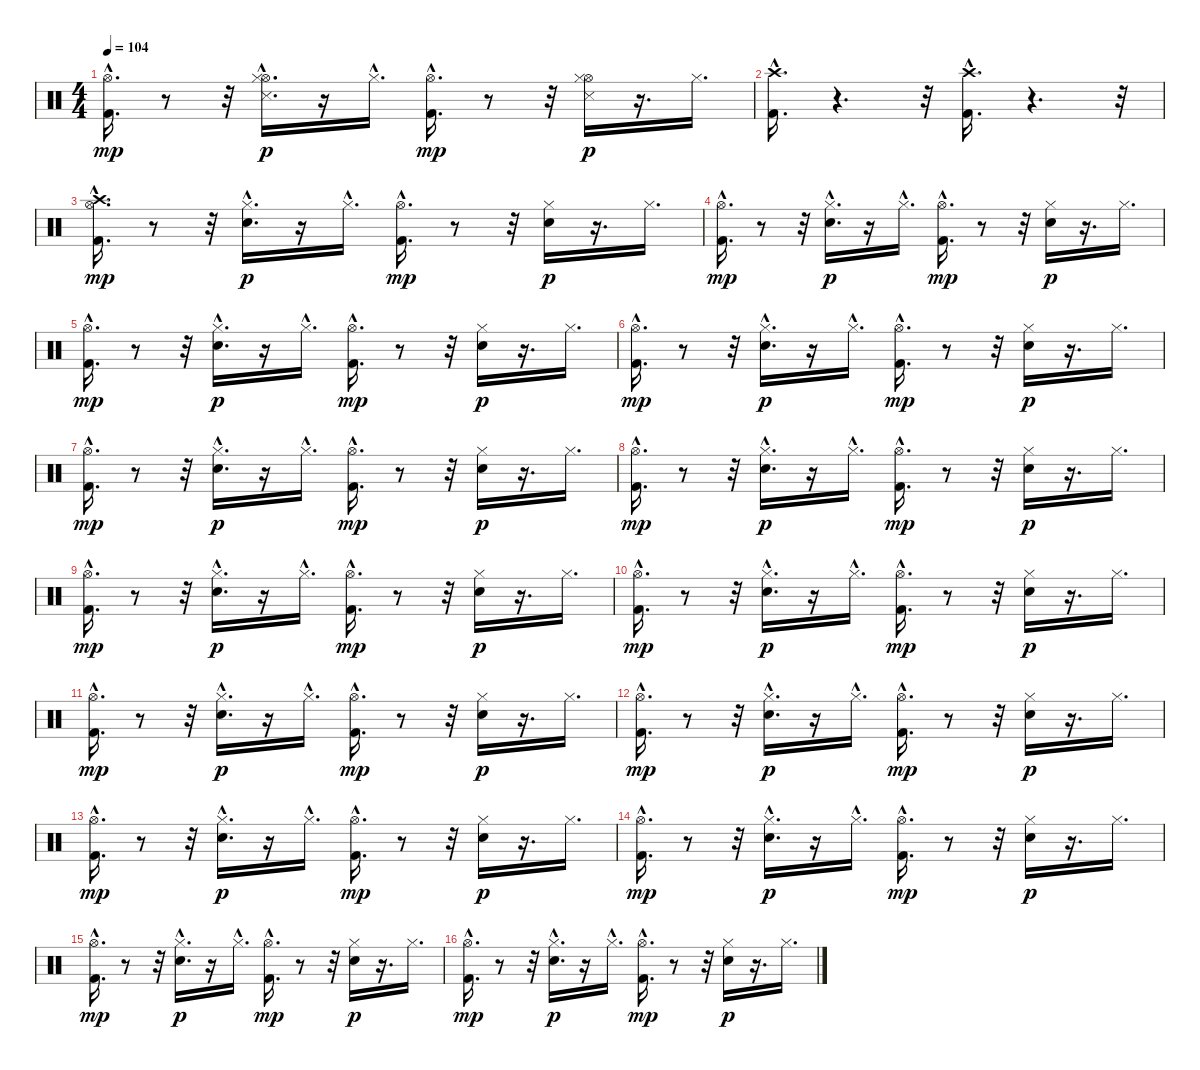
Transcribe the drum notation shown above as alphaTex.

\track "" {instrument percussion}
\staff {score}
\articulation defaults
\ts (4 4)
\tempo 104
\clef neutral
\ks c
("Hi-Hat (open)"{hac} "Kick (hit) 2"{hac}).16{d dy mp} r.8 r.32 ("Snare (side stick) 3"{hac} "Hi-Hat (open)"{hac} "Hi-Hat (closed)"{hac}).16{d dy p} r.16 "Hi-Hat (closed)"{hac}.16{d} ("Hi-Hat (open)"{hac} "Kick (hit) 2"{hac}).16{d dy mp} r.8 r.32 ("Snare (side stick) 3" "Hi-Hat (open)" "Hi-Hat (closed)").16{dy p} r.16{d} "Hi-Hat (closed)".16{d} |
("Kick (hit) 2"{hac} "Crash high (hit)"{hac}).16{d} r.4{d} r.32 ("Kick (hit) 2"{hac} "Crash high (hit)"{hac}).16{d} r.4{d} r.32 |
("Crash high (hit)"{hac} "Hi-Hat (open)"{hac} "Kick (hit) 2"{hac}).16{d dy mp} r.8 r.32 ("Hi-Hat (closed)"{hac} "Snare (hit) 2"{hac}).16{d dy p} r.16 "Hi-Hat (closed)"{hac}.16{d} ("Hi-Hat (open)"{hac} "Kick (hit) 2"{hac}).16{d dy mp} r.8 r.32 ("Hi-Hat (closed)" "Snare (hit) 2").16{dy p} r.16{d} "Hi-Hat (closed)".16{d} |
("Hi-Hat (open)"{hac} "Kick (hit) 2"{hac}).16{d dy mp} r.8 r.32 ("Hi-Hat (closed)"{hac} "Snare (hit) 2"{hac}).16{d dy p} r.16 "Hi-Hat (closed)"{hac}.16{d} ("Hi-Hat (open)"{hac} "Kick (hit) 2"{hac}).16{d dy mp} r.8 r.32 ("Hi-Hat (closed)" "Snare (hit) 2").16{dy p} r.16{d} "Hi-Hat (closed)".16{d} |
("Hi-Hat (open)"{hac} "Kick (hit) 2"{hac}).16{d dy mp} r.8 r.32 ("Hi-Hat (closed)"{hac} "Snare (hit) 2"{hac}).16{d dy p} r.16 "Hi-Hat (closed)"{hac}.16{d} ("Hi-Hat (open)"{hac} "Kick (hit) 2"{hac}).16{d dy mp} r.8 r.32 ("Hi-Hat (closed)" "Snare (hit) 2").16{dy p} r.16{d} "Hi-Hat (closed)".16{d} |
("Hi-Hat (open)"{hac} "Kick (hit) 2"{hac}).16{d dy mp} r.8 r.32 ("Hi-Hat (closed)"{hac} "Snare (hit) 2"{hac}).16{d dy p} r.16 "Hi-Hat (closed)"{hac}.16{d} ("Hi-Hat (open)"{hac} "Kick (hit) 2"{hac}).16{d dy mp} r.8 r.32 ("Hi-Hat (closed)" "Snare (hit) 2").16{dy p} r.16{d} "Hi-Hat (closed)".16{d} |
("Hi-Hat (open)"{hac} "Kick (hit) 2"{hac}).16{d dy mp} r.8 r.32 ("Hi-Hat (closed)"{hac} "Snare (hit) 2"{hac}).16{d dy p} r.16 "Hi-Hat (closed)"{hac}.16{d} ("Hi-Hat (open)"{hac} "Kick (hit) 2"{hac}).16{d dy mp} r.8 r.32 ("Hi-Hat (closed)" "Snare (hit) 2").16{dy p} r.16{d} "Hi-Hat (closed)".16{d} |
("Hi-Hat (open)"{hac} "Kick (hit) 2"{hac}).16{d dy mp} r.8 r.32 ("Hi-Hat (closed)"{hac} "Snare (hit) 2"{hac}).16{d dy p} r.16 "Hi-Hat (closed)"{hac}.16{d} ("Hi-Hat (open)"{hac} "Kick (hit) 2"{hac}).16{d dy mp} r.8 r.32 ("Hi-Hat (closed)" "Snare (hit) 2").16{dy p} r.16{d} "Hi-Hat (closed)".16{d} |
("Hi-Hat (open)"{hac} "Kick (hit) 2"{hac}).16{d dy mp} r.8 r.32 ("Hi-Hat (closed)"{hac} "Snare (hit) 2"{hac}).16{d dy p} r.16 "Hi-Hat (closed)"{hac}.16{d} ("Hi-Hat (open)"{hac} "Kick (hit) 2"{hac}).16{d dy mp} r.8 r.32 ("Hi-Hat (closed)" "Snare (hit) 2").16{dy p} r.16{d} "Hi-Hat (closed)".16{d} |
("Hi-Hat (open)"{hac} "Kick (hit) 2"{hac}).16{d dy mp} r.8 r.32 ("Hi-Hat (closed)"{hac} "Snare (hit) 2"{hac}).16{d dy p} r.16 "Hi-Hat (closed)"{hac}.16{d} ("Hi-Hat (open)"{hac} "Kick (hit) 2"{hac}).16{d dy mp} r.8 r.32 ("Hi-Hat (closed)" "Snare (hit) 2").16{dy p} r.16{d} "Hi-Hat (closed)".16{d} |
("Hi-Hat (open)"{hac} "Kick (hit) 2"{hac}).16{d dy mp} r.8 r.32 ("Hi-Hat (closed)"{hac} "Snare (hit) 2"{hac}).16{d dy p} r.16 "Hi-Hat (closed)"{hac}.16{d} ("Hi-Hat (open)"{hac} "Kick (hit) 2"{hac}).16{d dy mp} r.8 r.32 ("Hi-Hat (closed)" "Snare (hit) 2").16{dy p} r.16{d} "Hi-Hat (closed)".16{d} |
("Hi-Hat (open)"{hac} "Kick (hit) 2"{hac}).16{d dy mp} r.8 r.32 ("Hi-Hat (closed)"{hac} "Snare (hit) 2"{hac}).16{d dy p} r.16 "Hi-Hat (closed)"{hac}.16{d} ("Hi-Hat (open)"{hac} "Kick (hit) 2"{hac}).16{d dy mp} r.8 r.32 ("Hi-Hat (closed)" "Snare (hit) 2").16{dy p} r.16{d} "Hi-Hat (closed)".16{d} |
("Hi-Hat (open)"{hac} "Kick (hit) 2"{hac}).16{d dy mp} r.8 r.32 ("Hi-Hat (closed)"{hac} "Snare (hit) 2"{hac}).16{d dy p} r.16 "Hi-Hat (closed)"{hac}.16{d} ("Hi-Hat (open)"{hac} "Kick (hit) 2"{hac}).16{d dy mp} r.8 r.32 ("Hi-Hat (closed)" "Snare (hit) 2").16{dy p} r.16{d} "Hi-Hat (closed)".16{d} |
("Hi-Hat (open)"{hac} "Kick (hit) 2"{hac}).16{d dy mp} r.8 r.32 ("Hi-Hat (closed)"{hac} "Snare (hit) 2"{hac}).16{d dy p} r.16 "Hi-Hat (closed)"{hac}.16{d} ("Hi-Hat (open)"{hac} "Kick (hit) 2"{hac}).16{d dy mp} r.8 r.32 ("Hi-Hat (closed)" "Snare (hit) 2").16{dy p} r.16{d} "Hi-Hat (closed)".16{d} |
("Hi-Hat (open)"{hac} "Kick (hit) 2"{hac}).16{d dy mp} r.8 r.32 ("Hi-Hat (closed)"{hac} "Snare (hit) 2"{hac}).16{d dy p} r.16 "Hi-Hat (closed)"{hac}.16{d} ("Hi-Hat (open)"{hac} "Kick (hit) 2"{hac}).16{d dy mp} r.8 r.32 ("Hi-Hat (closed)" "Snare (hit) 2").16{dy p} r.16{d} "Hi-Hat (closed)".16{d} |
("Hi-Hat (open)"{hac} "Kick (hit) 2"{hac}).16{d dy mp} r.8 r.32 ("Hi-Hat (closed)"{hac} "Snare (hit) 2"{hac}).16{d dy p} r.16 "Hi-Hat (closed)"{hac}.16{d} ("Hi-Hat (open)"{hac} "Kick (hit) 2"{hac}).16{d dy mp} r.8 r.32 ("Hi-Hat (closed)" "Snare (hit) 2").16{dy p} r.16{d} "Hi-Hat (closed)".16{d}
